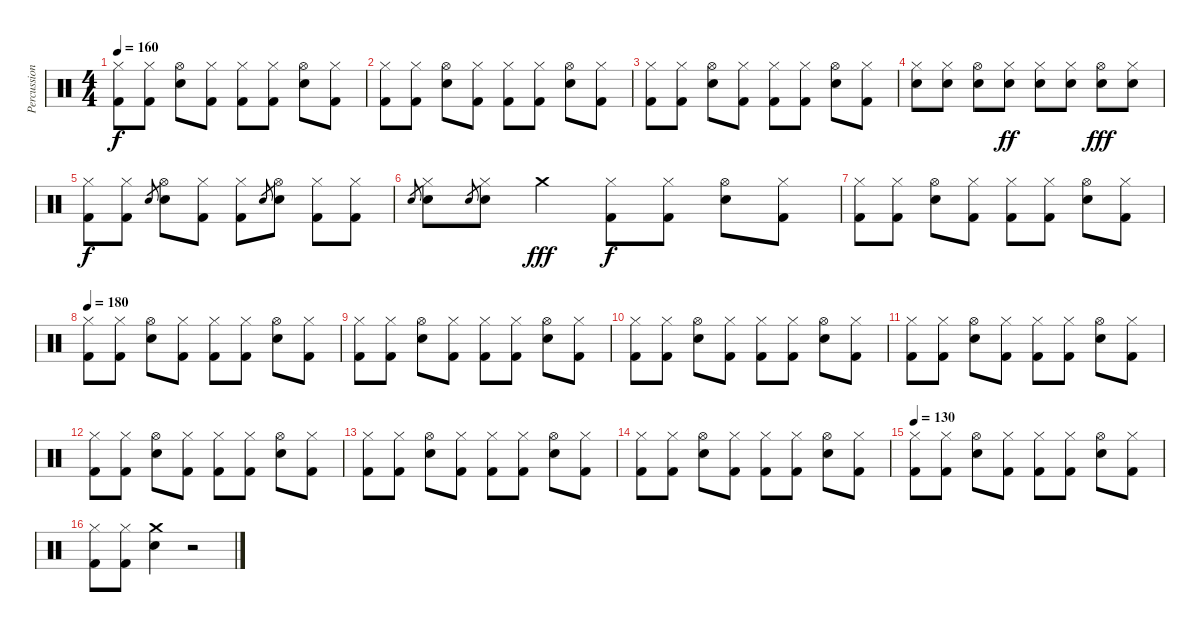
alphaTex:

\track ("Percussion" "Percussion") {instrument percussion}
\staff {score}
\articulation defaults
\ts (4 4)
\tempo 160
\clef neutral
\ks c
("Hi-Hat (closed)" "Kick (hit) 2").8{dy f} ("Hi-Hat (closed)" "Kick (hit) 2").8 ("Hi-Hat (open)" "Snare (hit) 2").8 ("Hi-Hat (closed)" "Kick (hit) 2").8 ("Hi-Hat (closed)" "Kick (hit) 2").8 ("Hi-Hat (closed)" "Kick (hit) 2").8 ("Hi-Hat (open)" "Snare (hit) 2").8 ("Hi-Hat (closed)" "Kick (hit) 2").8 |
("Hi-Hat (closed)" "Kick (hit) 2").8 ("Hi-Hat (closed)" "Kick (hit) 2").8 ("Hi-Hat (open)" "Snare (hit) 2").8 ("Hi-Hat (closed)" "Kick (hit) 2").8 ("Hi-Hat (closed)" "Kick (hit) 2").8 ("Hi-Hat (closed)" "Kick (hit) 2").8 ("Hi-Hat (open)" "Snare (hit) 2").8 ("Hi-Hat (closed)" "Kick (hit) 2").8 |
("Hi-Hat (closed)" "Kick (hit) 2").8 ("Hi-Hat (closed)" "Kick (hit) 2").8 ("Hi-Hat (open)" "Snare (hit) 2").8 ("Hi-Hat (closed)" "Kick (hit) 2").8 ("Hi-Hat (closed)" "Kick (hit) 2").8 ("Hi-Hat (closed)" "Kick (hit) 2").8 ("Hi-Hat (open)" "Snare (hit) 2").8 ("Hi-Hat (closed)" "Kick (hit) 2").8 |
("Hi-Hat (closed)" "Snare (hit) 2").8 ("Hi-Hat (closed)" "Snare (hit) 2").8 ("Hi-Hat (open)" "Snare (hit) 2").8 ("Hi-Hat (closed)" "Snare (hit) 2").8{dy ff} ("Hi-Hat (closed)" "Snare (hit) 2").8 ("Hi-Hat (closed)" "Snare (hit) 2").8 ("Hi-Hat (open)" "Snare (hit) 2").8{dy fff} ("Hi-Hat (closed)" "Snare (hit) 2").8 |
("Hi-Hat (closed)" "Kick (hit) 2").8{dy f} ("Hi-Hat (closed)" "Kick (hit) 2").8 "Snare (hit) 2".8{gr} ("Hi-Hat (open)" "Snare (hit) 2").8 ("Hi-Hat (closed)" "Kick (hit) 2").8 ("Hi-Hat (closed)" "Kick (hit) 2").8 "Snare (hit) 2".8{gr} ("Hi-Hat (open)" "Snare (hit) 2").8 ("Hi-Hat (closed)" "Kick (hit) 2").8 ("Hi-Hat (closed)" "Kick (hit) 2").8 |
"Snare (hit) 2".8{gr} ("Hi-Hat (closed)" "Snare (hit) 2").8 "Snare (hit) 2".8{gr} ("Hi-Hat (closed)" "Snare (hit) 2").8 "Crash medium (hit)".4{dy fff} ("Hi-Hat (closed)" "Kick (hit) 2").8{dy f} ("Hi-Hat (closed)" "Kick (hit) 2").8 ("Hi-Hat (open)" "Snare (hit) 2").8 ("Hi-Hat (closed)" "Kick (hit) 2").8 |
("Hi-Hat (closed)" "Kick (hit) 2").8 ("Hi-Hat (closed)" "Kick (hit) 2").8 ("Hi-Hat (open)" "Snare (hit) 2").8 ("Hi-Hat (closed)" "Kick (hit) 2").8 ("Hi-Hat (closed)" "Kick (hit) 2").8 ("Hi-Hat (closed)" "Kick (hit) 2").8 ("Hi-Hat (open)" "Snare (hit) 2").8 ("Hi-Hat (closed)" "Kick (hit) 2").8 |
\tempo 180
("Hi-Hat (closed)" "Kick (hit) 2").8 ("Hi-Hat (closed)" "Kick (hit) 2").8 ("Hi-Hat (open)" "Snare (hit) 2").8 ("Hi-Hat (closed)" "Kick (hit) 2").8 ("Hi-Hat (closed)" "Kick (hit) 2").8 ("Hi-Hat (closed)" "Kick (hit) 2").8 ("Hi-Hat (open)" "Snare (hit) 2").8 ("Hi-Hat (closed)" "Kick (hit) 2").8 |
("Hi-Hat (closed)" "Kick (hit) 2").8 ("Hi-Hat (closed)" "Kick (hit) 2").8 ("Hi-Hat (open)" "Snare (hit) 2").8 ("Hi-Hat (closed)" "Kick (hit) 2").8 ("Hi-Hat (closed)" "Kick (hit) 2").8 ("Hi-Hat (closed)" "Kick (hit) 2").8 ("Hi-Hat (open)" "Snare (hit) 2").8 ("Hi-Hat (closed)" "Kick (hit) 2").8 |
("Hi-Hat (closed)" "Kick (hit) 2").8 ("Hi-Hat (closed)" "Kick (hit) 2").8 ("Hi-Hat (open)" "Snare (hit) 2").8 ("Hi-Hat (closed)" "Kick (hit) 2").8 ("Hi-Hat (closed)" "Kick (hit) 2").8 ("Hi-Hat (closed)" "Kick (hit) 2").8 ("Hi-Hat (open)" "Snare (hit) 2").8 ("Hi-Hat (closed)" "Kick (hit) 2").8 |
("Hi-Hat (closed)" "Kick (hit) 2").8 ("Hi-Hat (closed)" "Kick (hit) 2").8 ("Hi-Hat (open)" "Snare (hit) 2").8 ("Hi-Hat (closed)" "Kick (hit) 2").8 ("Hi-Hat (closed)" "Kick (hit) 2").8 ("Hi-Hat (closed)" "Kick (hit) 2").8 ("Hi-Hat (open)" "Snare (hit) 2").8 ("Hi-Hat (closed)" "Kick (hit) 2").8 |
("Hi-Hat (closed)" "Kick (hit) 2").8 ("Hi-Hat (closed)" "Kick (hit) 2").8 ("Hi-Hat (open)" "Snare (hit) 2").8 ("Hi-Hat (closed)" "Kick (hit) 2").8 ("Hi-Hat (closed)" "Kick (hit) 2").8 ("Hi-Hat (closed)" "Kick (hit) 2").8 ("Hi-Hat (open)" "Snare (hit) 2").8 ("Hi-Hat (closed)" "Kick (hit) 2").8 |
("Hi-Hat (closed)" "Kick (hit) 2").8 ("Hi-Hat (closed)" "Kick (hit) 2").8 ("Hi-Hat (open)" "Snare (hit) 2").8 ("Hi-Hat (closed)" "Kick (hit) 2").8 ("Hi-Hat (closed)" "Kick (hit) 2").8 ("Hi-Hat (closed)" "Kick (hit) 2").8 ("Hi-Hat (open)" "Snare (hit) 2").8 ("Hi-Hat (closed)" "Kick (hit) 2").8 |
("Hi-Hat (closed)" "Kick (hit) 2").8 ("Hi-Hat (closed)" "Kick (hit) 2").8 ("Hi-Hat (open)" "Snare (hit) 2").8 ("Hi-Hat (closed)" "Kick (hit) 2").8 ("Hi-Hat (closed)" "Kick (hit) 2").8 ("Hi-Hat (closed)" "Kick (hit) 2").8 ("Hi-Hat (open)" "Snare (hit) 2").8 ("Hi-Hat (closed)" "Kick (hit) 2").8 |
\tempo 130
("Hi-Hat (closed)" "Kick (hit) 2").8 ("Hi-Hat (closed)" "Kick (hit) 2").8 ("Hi-Hat (open)" "Snare (hit) 2").8 ("Hi-Hat (closed)" "Kick (hit) 2").8 ("Hi-Hat (closed)" "Kick (hit) 2").8 ("Hi-Hat (closed)" "Kick (hit) 2").8 ("Hi-Hat (open)" "Snare (hit) 2").8 ("Hi-Hat (closed)" "Kick (hit) 2").8 |
("Hi-Hat (closed)" "Kick (hit) 2").8 ("Hi-Hat (closed)" "Kick (hit) 2").8 ("Crash medium (hit)" "Snare (hit) 2").4 r.2
